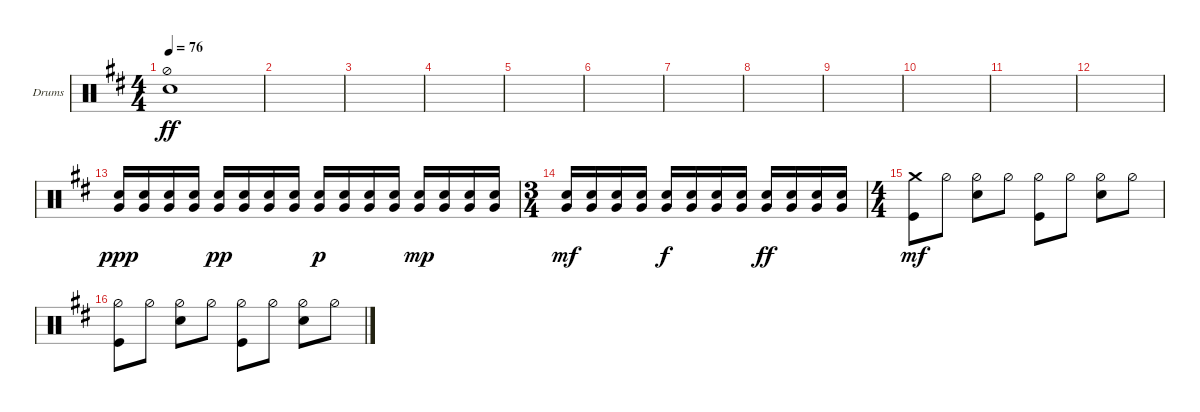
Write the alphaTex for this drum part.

\defaultSystemsLayout 4
\bracketExtendMode groupsimilarinstruments
\firstSystemTrackNameOrientation horizontal
\otherSystemsTrackNameOrientation horizontal
\track ("Drums" "Drums") {instrument percussion}
\staff {score}
\articulation defaults
\ts (4 4)
\tempo 76
\clef neutral
\ks bminor
("Hi-Hat (half)" "Snare (hit) 2").1{dy ff} |
|
|
|
|
|
|
|
|
|
|
|
("Snare (hit) 2" "Very Low Tom (hit)").16{dy ppp} ("Snare (hit) 2" "Very Low Tom (hit)").16 ("Snare (hit) 2" "Very Low Tom (hit)").16 ("Snare (hit) 2" "Very Low Tom (hit)").16 ("Snare (hit) 2" "Very Low Tom (hit)").16{dy pp} ("Snare (hit) 2" "Very Low Tom (hit)").16 ("Snare (hit) 2" "Very Low Tom (hit)").16 ("Snare (hit) 2" "Very Low Tom (hit)").16 ("Snare (hit) 2" "Very Low Tom (hit)").16{dy p} ("Snare (hit) 2" "Very Low Tom (hit)").16 ("Snare (hit) 2" "Very Low Tom (hit)").16 ("Snare (hit) 2" "Very Low Tom (hit)").16 ("Snare (hit) 2" "Very Low Tom (hit)").16{dy mp} ("Snare (hit) 2" "Very Low Tom (hit)").16 ("Snare (hit) 2" "Very Low Tom (hit)").16 ("Snare (hit) 2" "Very Low Tom (hit)").16 |
\ts (3 4)
("Snare (hit) 2" "Very Low Tom (hit)").16{dy mf} ("Snare (hit) 2" "Very Low Tom (hit)").16 ("Snare (hit) 2" "Very Low Tom (hit)").16 ("Snare (hit) 2" "Very Low Tom (hit)").16 ("Snare (hit) 2" "Very Low Tom (hit)").16{dy f} ("Snare (hit) 2" "Very Low Tom (hit)").16 ("Snare (hit) 2" "Very Low Tom (hit)").16 ("Snare (hit) 2" "Very Low Tom (hit)").16 ("Snare (hit) 2" "Very Low Tom (hit)").16{dy ff} ("Snare (hit) 2" "Very Low Tom (hit)").16 ("Snare (hit) 2" "Very Low Tom (hit)").16 ("Snare (hit) 2" "Very Low Tom (hit)").16 |
\ts (4 4)
("Kick (hit)" "Crash medium (hit)").8{dy mf} "Hi-Hat (half)".8 ("Hi-Hat (half)" "Snare (hit) 2").8 "Hi-Hat (half)".8 ("Hi-Hat (half)" "Kick (hit)").8 "Hi-Hat (half)".8 ("Hi-Hat (half)" "Snare (hit) 2").8 "Hi-Hat (half)".8 |
("Hi-Hat (half)" "Kick (hit)").8 "Hi-Hat (half)".8 ("Hi-Hat (half)" "Snare (hit) 2").8 "Hi-Hat (half)".8 ("Hi-Hat (half)" "Kick (hit)").8 "Hi-Hat (half)".8 ("Hi-Hat (half)" "Snare (hit) 2").8 "Hi-Hat (half)".8
